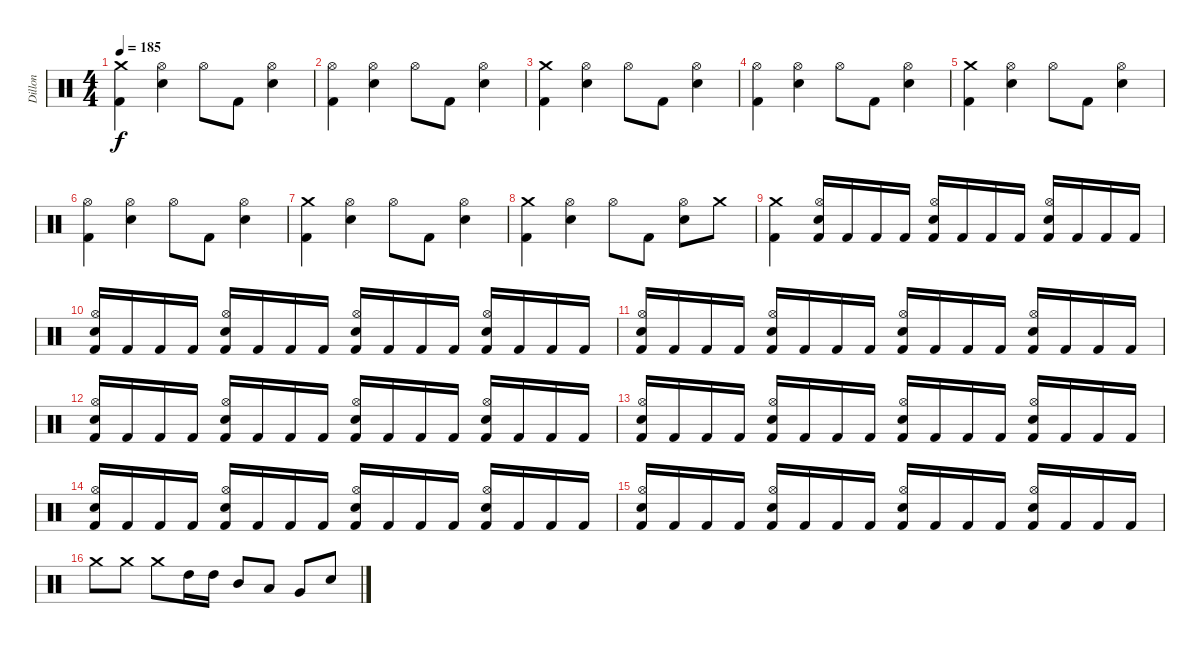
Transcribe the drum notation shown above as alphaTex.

\track ("Dillon" "Dillon") {instrument percussion}
\staff {score}
\articulation defaults
\ts (4 4)
\tempo 185
\clef neutral
\ks c
("Crash medium (hit)" "Kick (hit) 2").4{dy f} ("Hi-Hat (open)" "Electric Snare (hit)").4 "Hi-Hat (open)".8 "Kick (hit) 2".8 ("Hi-Hat (open)" "Electric Snare (hit)").4 |
("Hi-Hat (open)" "Kick (hit) 2").4 ("Hi-Hat (open)" "Electric Snare (hit)").4 "Hi-Hat (open)".8 "Kick (hit) 2".8 ("Hi-Hat (open)" "Electric Snare (hit)").4 |
("Crash medium (hit)" "Kick (hit) 2").4 ("Hi-Hat (open)" "Electric Snare (hit)").4 "Hi-Hat (open)".8 "Kick (hit) 2".8 ("Hi-Hat (open)" "Electric Snare (hit)").4 |
("Hi-Hat (open)" "Kick (hit) 2").4 ("Hi-Hat (open)" "Electric Snare (hit)").4 "Hi-Hat (open)".8 "Kick (hit) 2".8 ("Hi-Hat (open)" "Electric Snare (hit)").4 |
("Crash medium (hit)" "Kick (hit) 2").4 ("Hi-Hat (open)" "Electric Snare (hit)").4 "Hi-Hat (open)".8 "Kick (hit) 2".8 ("Hi-Hat (open)" "Electric Snare (hit)").4 |
("Hi-Hat (open)" "Kick (hit) 2").4 ("Hi-Hat (open)" "Electric Snare (hit)").4 "Hi-Hat (open)".8 "Kick (hit) 2".8 ("Hi-Hat (open)" "Electric Snare (hit)").4 |
("Crash medium (hit)" "Kick (hit) 2").4 ("Hi-Hat (open)" "Electric Snare (hit)").4 "Hi-Hat (open)".8 "Kick (hit) 2".8 ("Hi-Hat (open)" "Electric Snare (hit)").4 |
("Crash medium (hit)" "Kick (hit) 2").4 ("Hi-Hat (open)" "Electric Snare (hit)").4 "Hi-Hat (open)".8 "Kick (hit) 2".8 ("Hi-Hat (open)" "Electric Snare (hit)").8 "Crash medium (hit)".8 |
("Crash medium (hit)" "Kick (hit) 2").4 ("Hi-Hat (open)" "Electric Snare (hit)" "Kick (hit) 2").16 "Kick (hit) 2".16 "Kick (hit) 2".16 "Kick (hit) 2".16 ("Hi-Hat (open)" "Electric Snare (hit)" "Kick (hit) 2").16 "Kick (hit) 2".16 "Kick (hit) 2".16 "Kick (hit) 2".16 ("Hi-Hat (open)" "Electric Snare (hit)" "Kick (hit) 2").16 "Kick (hit) 2".16 "Kick (hit) 2".16 "Kick (hit) 2".16 |
("Hi-Hat (open)" "Electric Snare (hit)" "Kick (hit) 2").16 "Kick (hit) 2".16 "Kick (hit) 2".16 "Kick (hit) 2".16 ("Hi-Hat (open)" "Electric Snare (hit)" "Kick (hit) 2").16 "Kick (hit) 2".16 "Kick (hit) 2".16 "Kick (hit) 2".16 ("Hi-Hat (open)" "Electric Snare (hit)" "Kick (hit) 2").16 "Kick (hit) 2".16 "Kick (hit) 2".16 "Kick (hit) 2".16 ("Hi-Hat (open)" "Electric Snare (hit)" "Kick (hit) 2").16 "Kick (hit) 2".16 "Kick (hit) 2".16 "Kick (hit) 2".16 |
("Hi-Hat (open)" "Electric Snare (hit)" "Kick (hit) 2").16 "Kick (hit) 2".16 "Kick (hit) 2".16 "Kick (hit) 2".16 ("Hi-Hat (open)" "Electric Snare (hit)" "Kick (hit) 2").16 "Kick (hit) 2".16 "Kick (hit) 2".16 "Kick (hit) 2".16 ("Hi-Hat (open)" "Electric Snare (hit)" "Kick (hit) 2").16 "Kick (hit) 2".16 "Kick (hit) 2".16 "Kick (hit) 2".16 ("Hi-Hat (open)" "Electric Snare (hit)" "Kick (hit) 2").16 "Kick (hit) 2".16 "Kick (hit) 2".16 "Kick (hit) 2".16 |
("Hi-Hat (open)" "Electric Snare (hit)" "Kick (hit) 2").16 "Kick (hit) 2".16 "Kick (hit) 2".16 "Kick (hit) 2".16 ("Hi-Hat (open)" "Electric Snare (hit)" "Kick (hit) 2").16 "Kick (hit) 2".16 "Kick (hit) 2".16 "Kick (hit) 2".16 ("Hi-Hat (open)" "Electric Snare (hit)" "Kick (hit) 2").16 "Kick (hit) 2".16 "Kick (hit) 2".16 "Kick (hit) 2".16 ("Hi-Hat (open)" "Electric Snare (hit)" "Kick (hit) 2").16 "Kick (hit) 2".16 "Kick (hit) 2".16 "Kick (hit) 2".16 |
("Hi-Hat (open)" "Electric Snare (hit)" "Kick (hit) 2").16 "Kick (hit) 2".16 "Kick (hit) 2".16 "Kick (hit) 2".16 ("Hi-Hat (open)" "Electric Snare (hit)" "Kick (hit) 2").16 "Kick (hit) 2".16 "Kick (hit) 2".16 "Kick (hit) 2".16 ("Hi-Hat (open)" "Electric Snare (hit)" "Kick (hit) 2").16 "Kick (hit) 2".16 "Kick (hit) 2".16 "Kick (hit) 2".16 ("Hi-Hat (open)" "Electric Snare (hit)" "Kick (hit) 2").16 "Kick (hit) 2".16 "Kick (hit) 2".16 "Kick (hit) 2".16 |
("Hi-Hat (open)" "Electric Snare (hit)" "Kick (hit) 2").16 "Kick (hit) 2".16 "Kick (hit) 2".16 "Kick (hit) 2".16 ("Hi-Hat (open)" "Electric Snare (hit)" "Kick (hit) 2").16 "Kick (hit) 2".16 "Kick (hit) 2".16 "Kick (hit) 2".16 ("Hi-Hat (open)" "Electric Snare (hit)" "Kick (hit) 2").16 "Kick (hit) 2".16 "Kick (hit) 2".16 "Kick (hit) 2".16 ("Hi-Hat (open)" "Electric Snare (hit)" "Kick (hit) 2").16 "Kick (hit) 2".16 "Kick (hit) 2".16 "Kick (hit) 2".16 |
("Hi-Hat (open)" "Electric Snare (hit)" "Kick (hit) 2").16 "Kick (hit) 2".16 "Kick (hit) 2".16 "Kick (hit) 2".16 ("Hi-Hat (open)" "Electric Snare (hit)" "Kick (hit) 2").16 "Kick (hit) 2".16 "Kick (hit) 2".16 "Kick (hit) 2".16 ("Hi-Hat (open)" "Electric Snare (hit)" "Kick (hit) 2").16 "Kick (hit) 2".16 "Kick (hit) 2".16 "Kick (hit) 2".16 ("Hi-Hat (open)" "Electric Snare (hit)" "Kick (hit) 2").16 "Kick (hit) 2".16 "Kick (hit) 2".16 "Kick (hit) 2".16 |
"Crash medium (hit)".8 "Crash medium (hit)".8 "Crash medium (hit)".8 "High Tom (hit)".16 "High Tom (hit)".16 "Mid Tom (hit)".8 "Low Tom (hit)".8 "Very Low Tom (hit)".8 "Electric Snare (hit)".8
